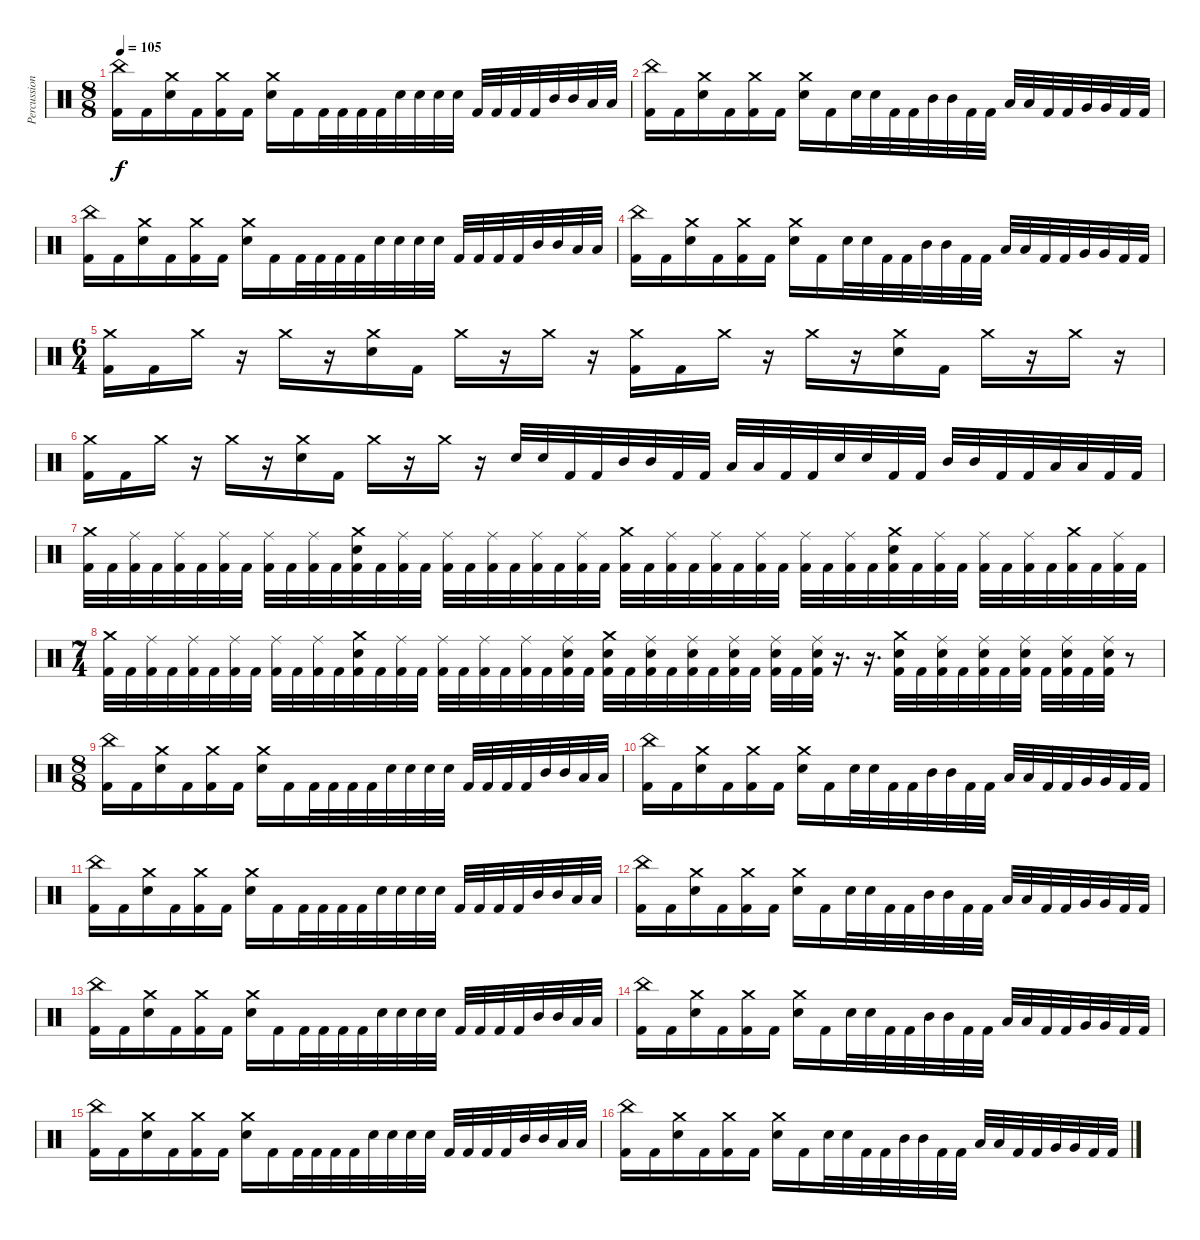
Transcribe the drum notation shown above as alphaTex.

\track ("Percussion" "Percussion") {instrument percussion}
\staff {score}
\articulation defaults
\ts (8 8)
\tempo 105
\clef neutral
\ks c
("China (hit)" "Kick (hit) 2").16{dy f} "Kick (hit) 2".16 ("Crash medium (hit)" "Electric Snare (hit)").16 "Kick (hit) 2".16 ("Crash medium (hit)" "Kick (hit) 2").16 "Kick (hit) 2".16 ("Crash medium (hit)" "Electric Snare (hit)").16 "Kick (hit) 2".16 "Kick (hit) 2".32 "Kick (hit) 2".32 "Kick (hit) 2".32 "Kick (hit) 2".32 "Electric Snare (hit)".32 "Electric Snare (hit)".32 "Electric Snare (hit)".32 "Electric Snare (hit)".32 "Kick (hit) 2".32 "Kick (hit) 2".32 "Kick (hit) 2".32 "Kick (hit) 2".32 "Mid Tom (hit)".32 "Mid Tom (hit)".32 "Low Tom (hit)".32 "Low Tom (hit)".32 |
("China (hit)" "Kick (hit) 2").16 "Kick (hit) 2".16 ("Crash medium (hit)" "Electric Snare (hit)").16 "Kick (hit) 2".16 ("Crash medium (hit)" "Kick (hit) 2").16 "Kick (hit) 2".16 ("Crash medium (hit)" "Electric Snare (hit)").16 "Kick (hit) 2".16 "Electric Snare (hit)".32 "Electric Snare (hit)".32 "Kick (hit) 2".32 "Kick (hit) 2".32 "Mid Tom (hit)".32 "Mid Tom (hit)".32 "Kick (hit) 2".32 "Kick (hit) 2".32 "Low Tom (hit)".32 "Low Tom (hit)".32 "Kick (hit) 2".32 "Kick (hit) 2".32 "Very Low Tom (hit)".32 "Very Low Tom (hit)".32 "Kick (hit) 2".32 "Kick (hit) 2".32 |
("China (hit)" "Kick (hit) 2").16 "Kick (hit) 2".16 ("Crash medium (hit)" "Electric Snare (hit)").16 "Kick (hit) 2".16 ("Crash medium (hit)" "Kick (hit) 2").16 "Kick (hit) 2".16 ("Crash medium (hit)" "Electric Snare (hit)").16 "Kick (hit) 2".16 "Kick (hit) 2".32 "Kick (hit) 2".32 "Kick (hit) 2".32 "Kick (hit) 2".32 "Electric Snare (hit)".32 "Electric Snare (hit)".32 "Electric Snare (hit)".32 "Electric Snare (hit)".32 "Kick (hit) 2".32 "Kick (hit) 2".32 "Kick (hit) 2".32 "Kick (hit) 2".32 "Mid Tom (hit)".32 "Mid Tom (hit)".32 "Low Tom (hit)".32 "Low Tom (hit)".32 |
("China (hit)" "Kick (hit) 2").16 "Kick (hit) 2".16 ("Crash medium (hit)" "Electric Snare (hit)").16 "Kick (hit) 2".16 ("Crash medium (hit)" "Kick (hit) 2").16 "Kick (hit) 2".16 ("Crash medium (hit)" "Electric Snare (hit)").16 "Kick (hit) 2".16 "Electric Snare (hit)".32 "Electric Snare (hit)".32 "Kick (hit) 2".32 "Kick (hit) 2".32 "Mid Tom (hit)".32 "Mid Tom (hit)".32 "Kick (hit) 2".32 "Kick (hit) 2".32 "Low Tom (hit)".32 "Low Tom (hit)".32 "Kick (hit) 2".32 "Kick (hit) 2".32 "Very Low Tom (hit)".32 "Very Low Tom (hit)".32 "Kick (hit) 2".32 "Kick (hit) 2".32 |
\ts (6 4)
("Crash medium (hit)" "Kick (hit) 2").16 "Kick (hit) 2".16 "Crash medium (hit)".16 r.16 "Crash medium (hit)".16 r.16 ("Crash medium (hit)" "Electric Snare (hit)").16 "Kick (hit) 2".16 "Crash medium (hit)".16 r.16 "Crash medium (hit)".16 r.16 ("Crash medium (hit)" "Kick (hit) 2").16 "Kick (hit) 2".16 "Crash medium (hit)".16 r.16 "Crash medium (hit)".16 r.16 ("Crash medium (hit)" "Electric Snare (hit)").16 "Kick (hit) 2".16 "Crash medium (hit)".16 r.16 "Crash medium (hit)".16 r.16 |
("Crash medium (hit)" "Kick (hit) 2").16 "Kick (hit) 2".16 "Crash medium (hit)".16 r.16 "Crash medium (hit)".16 r.16 ("Crash medium (hit)" "Electric Snare (hit)").16 "Kick (hit) 2".16 "Crash medium (hit)".16 r.16 "Crash medium (hit)".16 r.16 "Electric Snare (hit)".32 "Electric Snare (hit)".32 "Kick (hit) 2".32 "Kick (hit) 2".32 "Mid Tom (hit)".32 "Mid Tom (hit)".32 "Kick (hit) 2".32 "Kick (hit) 2".32 "Low Tom (hit)".32 "Low Tom (hit)".32 "Kick (hit) 2".32 "Kick (hit) 2".32 "Electric Snare (hit)".32 "Electric Snare (hit)".32 "Kick (hit) 2".32 "Kick (hit) 2".32 "Mid Tom (hit)".32 "Mid Tom (hit)".32 "Kick (hit) 2".32 "Kick (hit) 2".32 "Low Tom (hit)".32 "Low Tom (hit)".32 "Kick (hit) 2".32 "Kick (hit) 2".32 |
("Crash medium (hit)" "Kick (hit) 2").32 "Kick (hit) 2".32 ("Ride (middle)" "Kick (hit) 2").32 "Kick (hit) 2".32 ("Ride (middle)" "Kick (hit) 2").32 "Kick (hit) 2".32 ("Ride (middle)" "Kick (hit) 2").32 "Kick (hit) 2".32 ("Ride (middle)" "Kick (hit) 2").32 "Kick (hit) 2".32 ("Ride (middle)" "Kick (hit) 2").32 "Kick (hit) 2".32 ("Crash medium (hit)" "Electric Snare (hit)" "Kick (hit) 2").32 "Kick (hit) 2".32 ("Ride (middle)" "Kick (hit) 2").32 "Kick (hit) 2".32 ("Ride (middle)" "Kick (hit) 2").32 "Kick (hit) 2".32 ("Ride (middle)" "Kick (hit) 2").32 "Kick (hit) 2".32 ("Ride (middle)" "Kick (hit) 2").32 "Kick (hit) 2".32 ("Ride (middle)" "Kick (hit) 2").32 "Kick (hit) 2".32 ("Crash medium (hit)" "Kick (hit) 2").32 "Kick (hit) 2".32 ("Ride (middle)" "Kick (hit) 2").32 "Kick (hit) 2".32 ("Ride (middle)" "Kick (hit) 2").32 "Kick (hit) 2".32 ("Ride (middle)" "Kick (hit) 2").32 "Kick (hit) 2".32 ("Ride (middle)" "Kick (hit) 2").32 "Kick (hit) 2".32 ("Ride (middle)" "Kick (hit) 2").32 "Kick (hit) 2".32 ("Crash medium (hit)" "Electric Snare (hit)" "Kick (hit) 2").32 "Kick (hit) 2".32 ("Ride (middle)" "Kick (hit) 2").32 "Kick (hit) 2".32 ("Ride (middle)" "Kick (hit) 2").32 "Kick (hit) 2".32 ("Ride (middle)" "Kick (hit) 2").32 "Kick (hit) 2".32 ("Crash medium (hit)" "Kick (hit) 2").32 "Kick (hit) 2".32 ("Ride (middle)" "Kick (hit) 2").32 "Kick (hit) 2".32 |
\ts (7 4)
("Crash medium (hit)" "Kick (hit) 2").32 "Kick (hit) 2".32 ("Ride (middle)" "Kick (hit) 2").32 "Kick (hit) 2".32 ("Ride (middle)" "Kick (hit) 2").32 "Kick (hit) 2".32 ("Ride (middle)" "Kick (hit) 2").32 "Kick (hit) 2".32 ("Ride (middle)" "Kick (hit) 2").32 "Kick (hit) 2".32 ("Ride (middle)" "Kick (hit) 2").32 "Kick (hit) 2".32 ("Crash medium (hit)" "Electric Snare (hit)" "Kick (hit) 2").32 "Kick (hit) 2".32 ("Ride (middle)" "Kick (hit) 2").32 "Kick (hit) 2".32 ("Ride (middle)" "Kick (hit) 2").32 "Kick (hit) 2".32 ("Ride (middle)" "Kick (hit) 2").32 "Kick (hit) 2".32 ("Ride (middle)" "Kick (hit) 2").32 "Kick (hit) 2".32 ("Ride (middle)" "Electric Snare (hit)" "Kick (hit) 2").32 "Kick (hit) 2".32 ("Crash medium (hit)" "Electric Snare (hit)" "Kick (hit) 2").32 "Kick (hit) 2".32 ("Ride (middle)" "Electric Snare (hit)" "Kick (hit) 2").32 "Kick (hit) 2".32 ("Ride (middle)" "Electric Snare (hit)" "Kick (hit) 2").32 "Kick (hit) 2".32 ("Ride (middle)" "Electric Snare (hit)" "Kick (hit) 2").32 "Kick (hit) 2".32 ("Ride (middle)" "Electric Snare (hit)" "Kick (hit) 2").32 "Kick (hit) 2".32 ("Ride (middle)" "Electric Snare (hit)" "Kick (hit) 2").32 r.16{d} r.16{d} ("Crash medium (hit)" "Electric Snare (hit)" "Kick (hit) 2").32 "Kick (hit) 2".32 ("Ride (middle)" "Electric Snare (hit)" "Kick (hit) 2").32 "Kick (hit) 2".32 ("Ride (middle)" "Electric Snare (hit)" "Kick (hit) 2").32 "Kick (hit) 2".32 ("Ride (middle)" "Electric Snare (hit)" "Kick (hit) 2").32 "Kick (hit) 2".32 ("Ride (middle)" "Electric Snare (hit)" "Kick (hit) 2").32 "Kick (hit) 2".32 ("Ride (middle)" "Electric Snare (hit)" "Kick (hit) 2").32 r.8 |
\ts (8 8)
("China (hit)" "Kick (hit) 2").16 "Kick (hit) 2".16 ("Crash medium (hit)" "Electric Snare (hit)").16 "Kick (hit) 2".16 ("Crash medium (hit)" "Kick (hit) 2").16 "Kick (hit) 2".16 ("Crash medium (hit)" "Electric Snare (hit)").16 "Kick (hit) 2".16 "Kick (hit) 2".32 "Kick (hit) 2".32 "Kick (hit) 2".32 "Kick (hit) 2".32 "Electric Snare (hit)".32 "Electric Snare (hit)".32 "Electric Snare (hit)".32 "Electric Snare (hit)".32 "Kick (hit) 2".32 "Kick (hit) 2".32 "Kick (hit) 2".32 "Kick (hit) 2".32 "Mid Tom (hit)".32 "Mid Tom (hit)".32 "Low Tom (hit)".32 "Low Tom (hit)".32 |
("China (hit)" "Kick (hit) 2").16 "Kick (hit) 2".16 ("Crash medium (hit)" "Electric Snare (hit)").16 "Kick (hit) 2".16 ("Crash medium (hit)" "Kick (hit) 2").16 "Kick (hit) 2".16 ("Crash medium (hit)" "Electric Snare (hit)").16 "Kick (hit) 2".16 "Electric Snare (hit)".32 "Electric Snare (hit)".32 "Kick (hit) 2".32 "Kick (hit) 2".32 "Mid Tom (hit)".32 "Mid Tom (hit)".32 "Kick (hit) 2".32 "Kick (hit) 2".32 "Low Tom (hit)".32 "Low Tom (hit)".32 "Kick (hit) 2".32 "Kick (hit) 2".32 "Very Low Tom (hit)".32 "Very Low Tom (hit)".32 "Kick (hit) 2".32 "Kick (hit) 2".32 |
("China (hit)" "Kick (hit) 2").16 "Kick (hit) 2".16 ("Crash medium (hit)" "Electric Snare (hit)").16 "Kick (hit) 2".16 ("Crash medium (hit)" "Kick (hit) 2").16 "Kick (hit) 2".16 ("Crash medium (hit)" "Electric Snare (hit)").16 "Kick (hit) 2".16 "Kick (hit) 2".32 "Kick (hit) 2".32 "Kick (hit) 2".32 "Kick (hit) 2".32 "Electric Snare (hit)".32 "Electric Snare (hit)".32 "Electric Snare (hit)".32 "Electric Snare (hit)".32 "Kick (hit) 2".32 "Kick (hit) 2".32 "Kick (hit) 2".32 "Kick (hit) 2".32 "Mid Tom (hit)".32 "Mid Tom (hit)".32 "Low Tom (hit)".32 "Low Tom (hit)".32 |
("China (hit)" "Kick (hit) 2").16 "Kick (hit) 2".16 ("Crash medium (hit)" "Electric Snare (hit)").16 "Kick (hit) 2".16 ("Crash medium (hit)" "Kick (hit) 2").16 "Kick (hit) 2".16 ("Crash medium (hit)" "Electric Snare (hit)").16 "Kick (hit) 2".16 "Electric Snare (hit)".32 "Electric Snare (hit)".32 "Kick (hit) 2".32 "Kick (hit) 2".32 "Mid Tom (hit)".32 "Mid Tom (hit)".32 "Kick (hit) 2".32 "Kick (hit) 2".32 "Low Tom (hit)".32 "Low Tom (hit)".32 "Kick (hit) 2".32 "Kick (hit) 2".32 "Very Low Tom (hit)".32 "Very Low Tom (hit)".32 "Kick (hit) 2".32 "Kick (hit) 2".32 |
("China (hit)" "Kick (hit) 2").16 "Kick (hit) 2".16 ("Crash medium (hit)" "Electric Snare (hit)").16 "Kick (hit) 2".16 ("Crash medium (hit)" "Kick (hit) 2").16 "Kick (hit) 2".16 ("Crash medium (hit)" "Electric Snare (hit)").16 "Kick (hit) 2".16 "Kick (hit) 2".32 "Kick (hit) 2".32 "Kick (hit) 2".32 "Kick (hit) 2".32 "Electric Snare (hit)".32 "Electric Snare (hit)".32 "Electric Snare (hit)".32 "Electric Snare (hit)".32 "Kick (hit) 2".32 "Kick (hit) 2".32 "Kick (hit) 2".32 "Kick (hit) 2".32 "Mid Tom (hit)".32 "Mid Tom (hit)".32 "Low Tom (hit)".32 "Low Tom (hit)".32 |
("China (hit)" "Kick (hit) 2").16 "Kick (hit) 2".16 ("Crash medium (hit)" "Electric Snare (hit)").16 "Kick (hit) 2".16 ("Crash medium (hit)" "Kick (hit) 2").16 "Kick (hit) 2".16 ("Crash medium (hit)" "Electric Snare (hit)").16 "Kick (hit) 2".16 "Electric Snare (hit)".32 "Electric Snare (hit)".32 "Kick (hit) 2".32 "Kick (hit) 2".32 "Mid Tom (hit)".32 "Mid Tom (hit)".32 "Kick (hit) 2".32 "Kick (hit) 2".32 "Low Tom (hit)".32 "Low Tom (hit)".32 "Kick (hit) 2".32 "Kick (hit) 2".32 "Very Low Tom (hit)".32 "Very Low Tom (hit)".32 "Kick (hit) 2".32 "Kick (hit) 2".32 |
("China (hit)" "Kick (hit) 2").16 "Kick (hit) 2".16 ("Crash medium (hit)" "Electric Snare (hit)").16 "Kick (hit) 2".16 ("Crash medium (hit)" "Kick (hit) 2").16 "Kick (hit) 2".16 ("Crash medium (hit)" "Electric Snare (hit)").16 "Kick (hit) 2".16 "Kick (hit) 2".32 "Kick (hit) 2".32 "Kick (hit) 2".32 "Kick (hit) 2".32 "Electric Snare (hit)".32 "Electric Snare (hit)".32 "Electric Snare (hit)".32 "Electric Snare (hit)".32 "Kick (hit) 2".32 "Kick (hit) 2".32 "Kick (hit) 2".32 "Kick (hit) 2".32 "Mid Tom (hit)".32 "Mid Tom (hit)".32 "Low Tom (hit)".32 "Low Tom (hit)".32 |
("China (hit)" "Kick (hit) 2").16 "Kick (hit) 2".16 ("Crash medium (hit)" "Electric Snare (hit)").16 "Kick (hit) 2".16 ("Crash medium (hit)" "Kick (hit) 2").16 "Kick (hit) 2".16 ("Crash medium (hit)" "Electric Snare (hit)").16 "Kick (hit) 2".16 "Electric Snare (hit)".32 "Electric Snare (hit)".32 "Kick (hit) 2".32 "Kick (hit) 2".32 "Mid Tom (hit)".32 "Mid Tom (hit)".32 "Kick (hit) 2".32 "Kick (hit) 2".32 "Low Tom (hit)".32 "Low Tom (hit)".32 "Kick (hit) 2".32 "Kick (hit) 2".32 "Very Low Tom (hit)".32 "Very Low Tom (hit)".32 "Kick (hit) 2".32 "Kick (hit) 2".32
